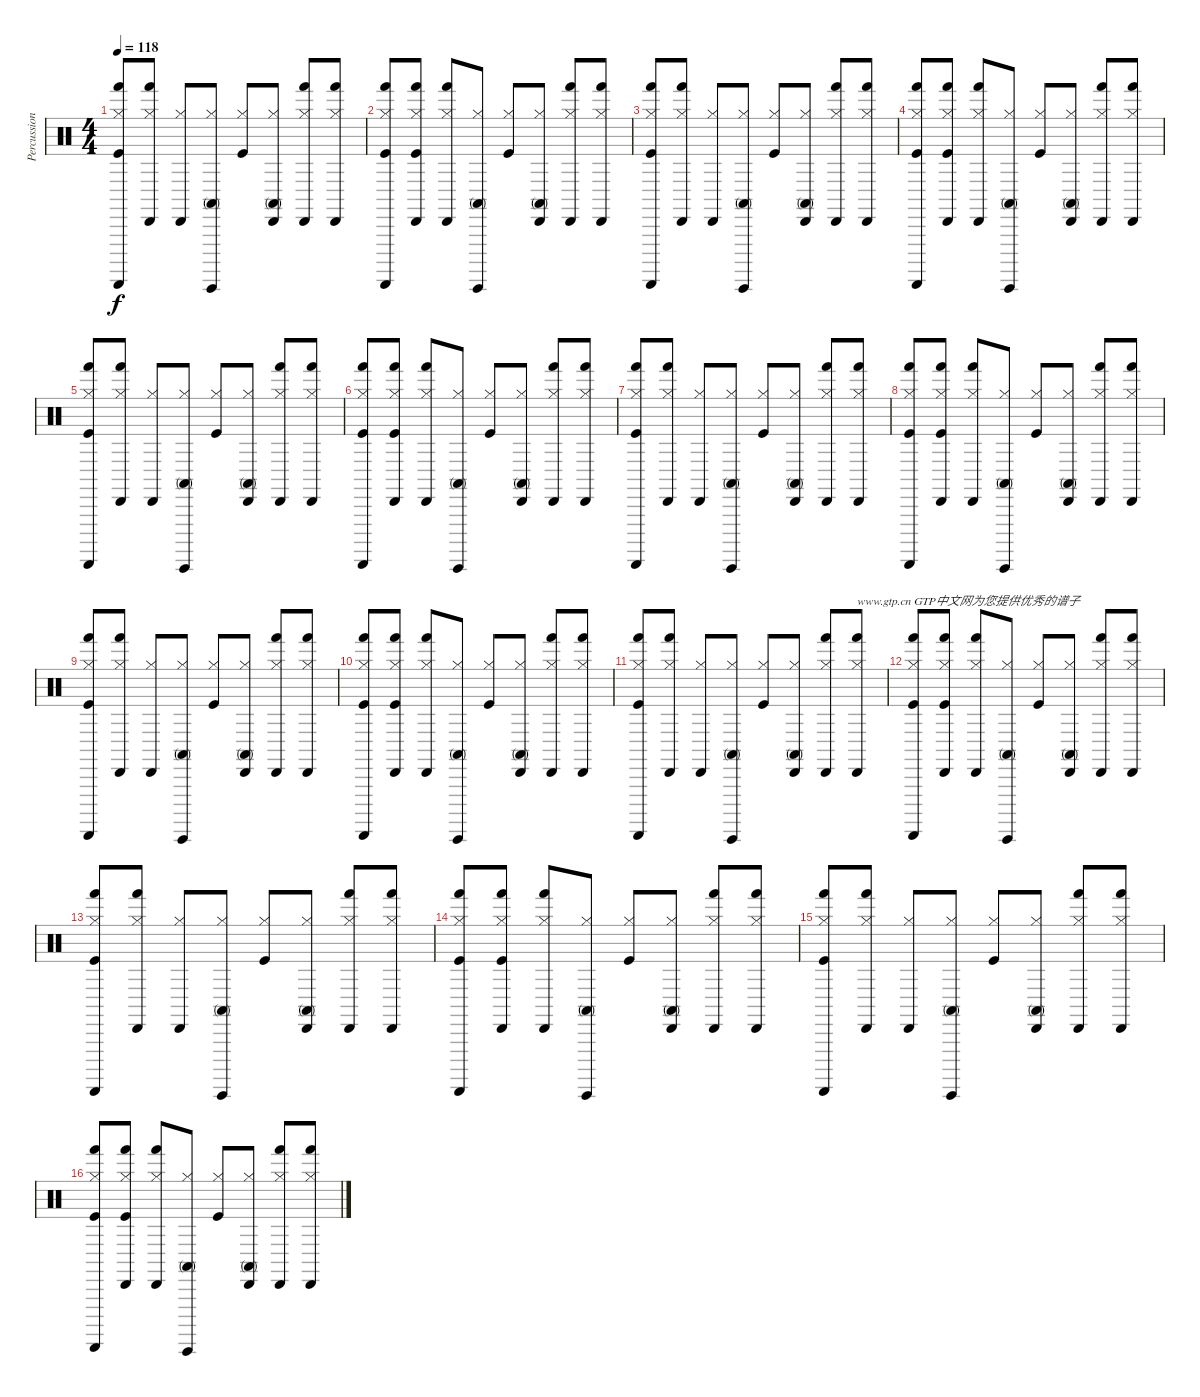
\track ("Percussion" "Percussion") {instrument percussion}
\staff {score}
\articulation defaults
\ts (4 4)
\tempo 118
\clef neutral
\ks c
("Kick (hit)" "Guiro (scrap-return)" "Hand (hit)" "Hi-Hat (closed)").8{dy f} ("Cabasa (hit)" "Hand (hit)" "Hi-Hat (closed)").8 ("Cabasa (hit)" "Hi-Hat (closed)").8 ("Guiro (hit)" "Conga high (mute)" "Hi-Hat (closed)").8 ("Kick (hit)" "Hi-Hat (closed)").8 ("Cabasa (hit)" "Conga high (mute)" "Hi-Hat (closed)").8 ("Cabasa (hit)" "Hand (hit)" "Hi-Hat (closed)").8 ("Cabasa (hit)" "Hand (hit)" "Hi-Hat (closed)").8 |
("Kick (hit)" "Guiro (scrap-return)" "Hand (hit)" "Hi-Hat (closed)").8 ("Cabasa (hit)" "Kick (hit)" "Hand (hit)" "Hi-Hat (closed)").8 ("Cabasa (hit)" "Hand (hit)" "Hi-Hat (closed)").8 ("Guiro (hit)" "Conga high (mute)" "Hi-Hat (closed)").8 ("Kick (hit)" "Hi-Hat (closed)").8 ("Cabasa (hit)" "Conga high (mute)" "Hi-Hat (closed)").8 ("Cabasa (hit)" "Hand (hit)" "Hi-Hat (closed)").8 ("Cabasa (hit)" "Hand (hit)" "Hi-Hat (closed)").8 |
("Kick (hit)" "Guiro (scrap-return)" "Hand (hit)" "Hi-Hat (closed)").8 ("Cabasa (hit)" "Hand (hit)" "Hi-Hat (closed)").8 ("Cabasa (hit)" "Hi-Hat (closed)").8 ("Guiro (hit)" "Conga high (mute)" "Hi-Hat (closed)").8 ("Kick (hit)" "Hi-Hat (closed)").8 ("Cabasa (hit)" "Conga high (mute)" "Hi-Hat (closed)").8 ("Cabasa (hit)" "Hand (hit)" "Hi-Hat (closed)").8 ("Cabasa (hit)" "Hand (hit)" "Hi-Hat (closed)").8 |
("Kick (hit)" "Guiro (scrap-return)" "Hand (hit)" "Hi-Hat (closed)").8 ("Cabasa (hit)" "Kick (hit)" "Hand (hit)" "Hi-Hat (closed)").8 ("Cabasa (hit)" "Hand (hit)" "Hi-Hat (closed)").8 ("Guiro (hit)" "Conga high (mute)" "Hi-Hat (closed)").8 ("Kick (hit)" "Hi-Hat (closed)").8 ("Cabasa (hit)" "Conga high (mute)" "Hi-Hat (closed)").8 ("Cabasa (hit)" "Hand (hit)" "Hi-Hat (closed)").8 ("Cabasa (hit)" "Hand (hit)" "Hi-Hat (closed)").8 |
("Kick (hit)" "Guiro (scrap-return)" "Hand (hit)" "Hi-Hat (closed)").8 ("Cabasa (hit)" "Hand (hit)" "Hi-Hat (closed)").8 ("Cabasa (hit)" "Hi-Hat (closed)").8 ("Guiro (hit)" "Conga high (mute)" "Hi-Hat (closed)").8 ("Kick (hit)" "Hi-Hat (closed)").8 ("Cabasa (hit)" "Conga high (mute)" "Hi-Hat (closed)").8 ("Cabasa (hit)" "Hand (hit)" "Hi-Hat (closed)").8 ("Cabasa (hit)" "Hand (hit)" "Hi-Hat (closed)").8 |
("Kick (hit)" "Guiro (scrap-return)" "Hand (hit)" "Hi-Hat (closed)").8 ("Cabasa (hit)" "Kick (hit)" "Hand (hit)" "Hi-Hat (closed)").8 ("Cabasa (hit)" "Hand (hit)" "Hi-Hat (closed)").8 ("Guiro (hit)" "Conga high (mute)" "Hi-Hat (closed)").8 ("Kick (hit)" "Hi-Hat (closed)").8 ("Cabasa (hit)" "Conga high (mute)" "Hi-Hat (closed)").8 ("Cabasa (hit)" "Hand (hit)" "Hi-Hat (closed)").8 ("Cabasa (hit)" "Hand (hit)" "Hi-Hat (closed)").8 |
("Kick (hit)" "Guiro (scrap-return)" "Hand (hit)" "Hi-Hat (closed)").8 ("Cabasa (hit)" "Hand (hit)" "Hi-Hat (closed)").8 ("Cabasa (hit)" "Hi-Hat (closed)").8 ("Guiro (hit)" "Conga high (mute)" "Hi-Hat (closed)").8 ("Kick (hit)" "Hi-Hat (closed)").8 ("Cabasa (hit)" "Conga high (mute)" "Hi-Hat (closed)").8 ("Cabasa (hit)" "Hand (hit)" "Hi-Hat (closed)").8 ("Cabasa (hit)" "Hand (hit)" "Hi-Hat (closed)").8 |
("Kick (hit)" "Guiro (scrap-return)" "Hand (hit)" "Hi-Hat (closed)").8 ("Cabasa (hit)" "Kick (hit)" "Hand (hit)" "Hi-Hat (closed)").8 ("Cabasa (hit)" "Hand (hit)" "Hi-Hat (closed)").8 ("Guiro (hit)" "Conga high (mute)" "Hi-Hat (closed)").8 ("Kick (hit)" "Hi-Hat (closed)").8 ("Cabasa (hit)" "Conga high (mute)" "Hi-Hat (closed)").8 ("Cabasa (hit)" "Hand (hit)" "Hi-Hat (closed)").8 ("Cabasa (hit)" "Hand (hit)" "Hi-Hat (closed)").8 |
("Kick (hit)" "Guiro (scrap-return)" "Hand (hit)" "Hi-Hat (closed)").8 ("Cabasa (hit)" "Hand (hit)" "Hi-Hat (closed)").8 ("Cabasa (hit)" "Hi-Hat (closed)").8 ("Guiro (hit)" "Conga high (mute)" "Hi-Hat (closed)").8 ("Kick (hit)" "Hi-Hat (closed)").8 ("Cabasa (hit)" "Conga high (mute)" "Hi-Hat (closed)").8 ("Cabasa (hit)" "Hand (hit)" "Hi-Hat (closed)").8 ("Cabasa (hit)" "Hand (hit)" "Hi-Hat (closed)").8 |
("Kick (hit)" "Guiro (scrap-return)" "Hand (hit)" "Hi-Hat (closed)").8 ("Cabasa (hit)" "Kick (hit)" "Hand (hit)" "Hi-Hat (closed)").8 ("Cabasa (hit)" "Hand (hit)" "Hi-Hat (closed)").8 ("Guiro (hit)" "Conga high (mute)" "Hi-Hat (closed)").8 ("Kick (hit)" "Hi-Hat (closed)").8 ("Cabasa (hit)" "Conga high (mute)" "Hi-Hat (closed)").8 ("Cabasa (hit)" "Hand (hit)" "Hi-Hat (closed)").8 ("Cabasa (hit)" "Hand (hit)" "Hi-Hat (closed)").8 |
("Kick (hit)" "Guiro (scrap-return)" "Hand (hit)" "Hi-Hat (closed)").8 ("Cabasa (hit)" "Hand (hit)" "Hi-Hat (closed)").8 ("Cabasa (hit)" "Hi-Hat (closed)").8 ("Guiro (hit)" "Conga high (mute)" "Hi-Hat (closed)").8 ("Kick (hit)" "Hi-Hat (closed)").8 ("Cabasa (hit)" "Conga high (mute)" "Hi-Hat (closed)").8 ("Cabasa (hit)" "Hand (hit)" "Hi-Hat (closed)").8 ("Cabasa (hit)" "Hand (hit)" "Hi-Hat (closed)").8{txt "www.gtp.cn GTP中文网为您提供优秀的谱子"} |
("Kick (hit)" "Guiro (scrap-return)" "Hand (hit)" "Hi-Hat (closed)").8 ("Cabasa (hit)" "Kick (hit)" "Hand (hit)" "Hi-Hat (closed)").8 ("Cabasa (hit)" "Hand (hit)" "Hi-Hat (closed)").8 ("Guiro (hit)" "Conga high (mute)" "Hi-Hat (closed)").8 ("Kick (hit)" "Hi-Hat (closed)").8 ("Cabasa (hit)" "Conga high (mute)" "Hi-Hat (closed)").8 ("Cabasa (hit)" "Hand (hit)" "Hi-Hat (closed)").8 ("Cabasa (hit)" "Hand (hit)" "Hi-Hat (closed)").8 |
("Kick (hit)" "Guiro (scrap-return)" "Hand (hit)" "Hi-Hat (closed)").8 ("Cabasa (hit)" "Hand (hit)" "Hi-Hat (closed)").8 ("Cabasa (hit)" "Hi-Hat (closed)").8 ("Guiro (hit)" "Conga high (mute)" "Hi-Hat (closed)").8 ("Kick (hit)" "Hi-Hat (closed)").8 ("Cabasa (hit)" "Conga high (mute)" "Hi-Hat (closed)").8 ("Cabasa (hit)" "Hand (hit)" "Hi-Hat (closed)").8 ("Cabasa (hit)" "Hand (hit)" "Hi-Hat (closed)").8 |
("Kick (hit)" "Guiro (scrap-return)" "Hand (hit)" "Hi-Hat (closed)").8 ("Cabasa (hit)" "Kick (hit)" "Hand (hit)" "Hi-Hat (closed)").8 ("Cabasa (hit)" "Hand (hit)" "Hi-Hat (closed)").8 ("Guiro (hit)" "Conga high (mute)" "Hi-Hat (closed)").8 ("Kick (hit)" "Hi-Hat (closed)").8 ("Cabasa (hit)" "Conga high (mute)" "Hi-Hat (closed)").8 ("Cabasa (hit)" "Hand (hit)" "Hi-Hat (closed)").8 ("Cabasa (hit)" "Hand (hit)" "Hi-Hat (closed)").8 |
("Kick (hit)" "Guiro (scrap-return)" "Hand (hit)" "Hi-Hat (closed)").8 ("Cabasa (hit)" "Hand (hit)" "Hi-Hat (closed)").8 ("Cabasa (hit)" "Hi-Hat (closed)").8 ("Guiro (hit)" "Conga high (mute)" "Hi-Hat (closed)").8 ("Kick (hit)" "Hi-Hat (closed)").8 ("Cabasa (hit)" "Conga high (mute)" "Hi-Hat (closed)").8 ("Cabasa (hit)" "Hand (hit)" "Hi-Hat (closed)").8 ("Cabasa (hit)" "Hand (hit)" "Hi-Hat (closed)").8 |
("Kick (hit)" "Guiro (scrap-return)" "Hand (hit)" "Hi-Hat (closed)").8 ("Cabasa (hit)" "Kick (hit)" "Hand (hit)" "Hi-Hat (closed)").8 ("Cabasa (hit)" "Hand (hit)" "Hi-Hat (closed)").8 ("Guiro (hit)" "Conga high (mute)" "Hi-Hat (closed)").8 ("Kick (hit)" "Hi-Hat (closed)").8 ("Cabasa (hit)" "Conga high (mute)" "Hi-Hat (closed)").8 ("Cabasa (hit)" "Hand (hit)" "Hi-Hat (closed)").8 ("Cabasa (hit)" "Hand (hit)" "Hi-Hat (closed)").8
